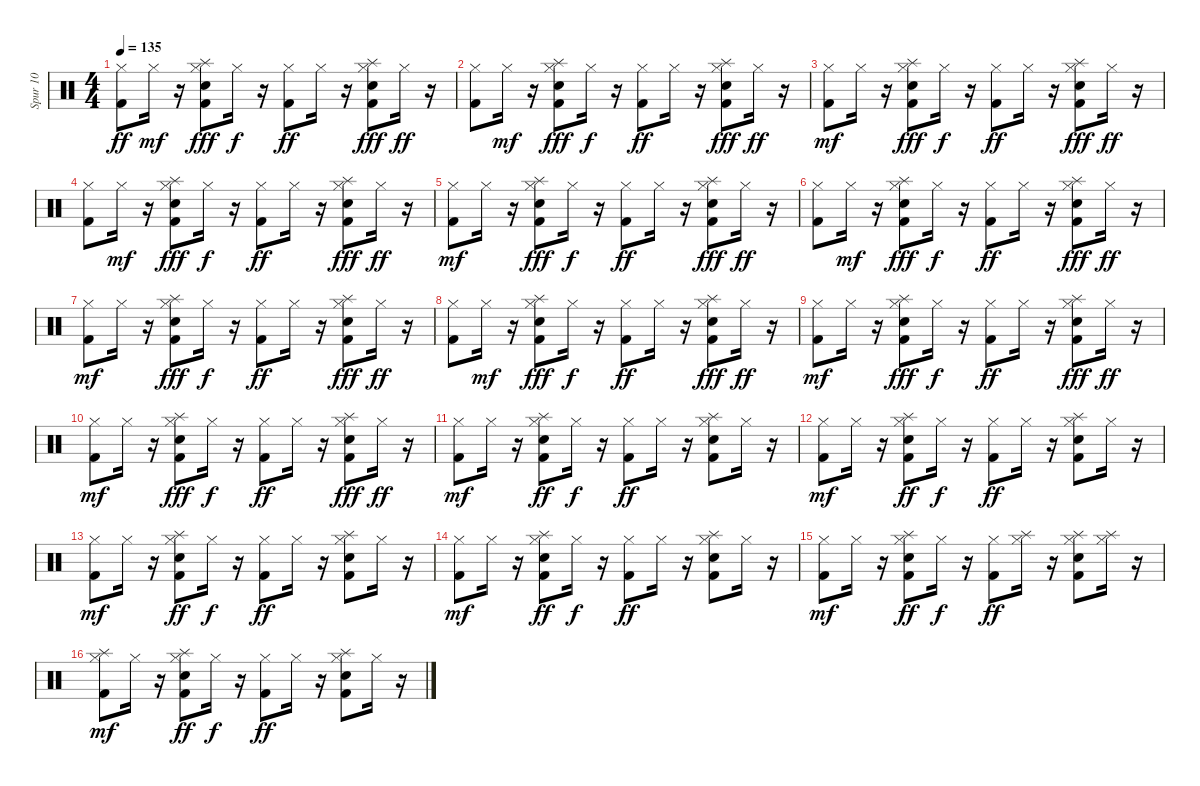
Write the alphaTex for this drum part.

\track ("Spur 10" "Spur 10") {instrument percussion}
\staff {score}
\articulation defaults
\ts (4 4)
\tempo 135
\clef neutral
\ks c
("Hi-Hat (closed)" "Kick (hit) 2").8{dy ff} "Hi-Hat (closed)".16{dy mf} r.16 ("Hi-Hat (closed)" "Kick (hit) 2" "Splash (hit)" "Snare (hit) 2").8{dy fff} "Hi-Hat (closed)".16{dy f} r.16 ("Hi-Hat (closed)" "Kick (hit) 2").8{dy ff} "Hi-Hat (closed)".16 r.16 ("Hi-Hat (closed)" "Kick (hit) 2" "Splash (hit)" "Snare (hit) 2").8{dy fff} "Hi-Hat (closed)".16{dy ff} r.16 |
("Hi-Hat (closed)" "Kick (hit) 2").8 "Hi-Hat (closed)".16{dy mf} r.16 ("Hi-Hat (closed)" "Kick (hit) 2" "Splash (hit)" "Snare (hit) 2").8{dy fff} "Hi-Hat (closed)".16{dy f} r.16 ("Hi-Hat (closed)" "Kick (hit) 2").8{dy ff} "Hi-Hat (closed)".16 r.16 ("Hi-Hat (closed)" "Kick (hit) 2" "Splash (hit)" "Snare (hit) 2").8{dy fff} "Hi-Hat (closed)".16{dy ff} r.16 |
("Kick (hit) 2" "Hi-Hat (closed)").8{dy mf} "Hi-Hat (closed)".16 r.16 ("Kick (hit) 2" "Hi-Hat (closed)" "Splash (hit)" "Snare (hit) 2").8{dy fff} "Hi-Hat (closed)".16{dy f} r.16 ("Kick (hit) 2" "Hi-Hat (closed)").8{dy ff} "Hi-Hat (closed)".16 r.16 ("Kick (hit) 2" "Hi-Hat (closed)" "Splash (hit)" "Snare (hit) 2").8{dy fff} "Hi-Hat (closed)".16{dy ff} r.16 |
("Hi-Hat (closed)" "Kick (hit) 2").8 "Hi-Hat (closed)".16{dy mf} r.16 ("Hi-Hat (closed)" "Kick (hit) 2" "Snare (hit) 2" "Splash (hit)").8{dy fff} "Hi-Hat (closed)".16{dy f} r.16 ("Hi-Hat (closed)" "Kick (hit) 2").8{dy ff} "Hi-Hat (closed)".16 r.16 ("Hi-Hat (closed)" "Kick (hit) 2" "Snare (hit) 2" "Splash (hit)").8{dy fff} "Hi-Hat (closed)".16{dy ff} r.16 |
("Kick (hit) 2" "Hi-Hat (closed)").8{dy mf} "Hi-Hat (closed)".16 r.16 ("Kick (hit) 2" "Hi-Hat (closed)" "Splash (hit)" "Snare (hit) 2").8{dy fff} "Hi-Hat (closed)".16{dy f} r.16 ("Kick (hit) 2" "Hi-Hat (closed)").8{dy ff} "Hi-Hat (closed)".16 r.16 ("Kick (hit) 2" "Hi-Hat (closed)" "Splash (hit)" "Snare (hit) 2").8{dy fff} "Hi-Hat (closed)".16{dy ff} r.16 |
("Hi-Hat (closed)" "Kick (hit) 2").8 "Hi-Hat (closed)".16{dy mf} r.16 ("Hi-Hat (closed)" "Kick (hit) 2" "Snare (hit) 2" "Splash (hit)").8{dy fff} "Hi-Hat (closed)".16{dy f} r.16 ("Hi-Hat (closed)" "Kick (hit) 2").8{dy ff} "Hi-Hat (closed)".16 r.16 ("Hi-Hat (closed)" "Kick (hit) 2" "Snare (hit) 2" "Splash (hit)").8{dy fff} "Hi-Hat (closed)".16{dy ff} r.16 |
("Kick (hit) 2" "Hi-Hat (closed)").8{dy mf} "Hi-Hat (closed)".16 r.16 ("Kick (hit) 2" "Hi-Hat (closed)" "Snare (hit) 2" "Splash (hit)").8{dy fff} "Hi-Hat (closed)".16{dy f} r.16 ("Kick (hit) 2" "Hi-Hat (closed)").8{dy ff} "Hi-Hat (closed)".16 r.16 ("Kick (hit) 2" "Hi-Hat (closed)" "Snare (hit) 2" "Splash (hit)").8{dy fff} "Hi-Hat (closed)".16{dy ff} r.16 |
("Hi-Hat (closed)" "Kick (hit) 2").8 "Hi-Hat (closed)".16{dy mf} r.16 ("Kick (hit) 2" "Hi-Hat (closed)" "Splash (hit)" "Snare (hit) 2").8{dy fff} "Hi-Hat (closed)".16{dy f} r.16 ("Hi-Hat (closed)" "Kick (hit) 2").8{dy ff} "Hi-Hat (closed)".16 r.16 ("Hi-Hat (closed)" "Kick (hit) 2" "Splash (hit)" "Snare (hit) 2").8{dy fff} "Hi-Hat (closed)".16{dy ff} r.16 |
("Kick (hit) 2" "Hi-Hat (closed)").8{dy mf} "Hi-Hat (closed)".16 r.16 ("Kick (hit) 2" "Hi-Hat (closed)" "Splash (hit)" "Snare (hit) 2").8{dy fff} "Hi-Hat (closed)".16{dy f} r.16 ("Kick (hit) 2" "Hi-Hat (closed)").8{dy ff} "Hi-Hat (closed)".16 r.16 ("Kick (hit) 2" "Hi-Hat (closed)" "Splash (hit)" "Snare (hit) 2").8{dy fff} "Hi-Hat (closed)".16{dy ff} r.16 |
("Kick (hit) 2" "Hi-Hat (closed)").8{dy mf} "Hi-Hat (closed)".16 r.16 ("Kick (hit) 2" "Hi-Hat (closed)" "Snare (hit) 2" "Splash (hit)").8{dy fff} "Hi-Hat (closed)".16{dy f} r.16 ("Kick (hit) 2" "Hi-Hat (closed)").8{dy ff} "Hi-Hat (closed)".16 r.16 ("Kick (hit) 2" "Hi-Hat (closed)" "Snare (hit) 2" "Splash (hit)").8{dy fff} "Hi-Hat (closed)".16{dy ff} r.16 |
("Kick (hit) 2" "Hi-Hat (closed)").8{dy mf} "Hi-Hat (closed)".16 r.16 ("Splash (hit)" "Snare (hit) 2" "Kick (hit) 2" "Hi-Hat (closed)").8{dy ff} "Hi-Hat (closed)".16{dy f} r.16 ("Kick (hit) 2" "Hi-Hat (closed)").8{dy ff} "Hi-Hat (closed)".16 r.16 ("Splash (hit)" "Snare (hit) 2" "Kick (hit) 2" "Hi-Hat (closed)").8 "Hi-Hat (closed)".16 r.16 |
("Kick (hit) 2" "Hi-Hat (closed)").8{dy mf} "Hi-Hat (closed)".16 r.16 ("Splash (hit)" "Snare (hit) 2" "Kick (hit) 2" "Hi-Hat (closed)").8{dy ff} "Hi-Hat (closed)".16{dy f} r.16 ("Kick (hit) 2" "Hi-Hat (closed)").8{dy ff} "Hi-Hat (closed)".16 r.16 ("Splash (hit)" "Snare (hit) 2" "Kick (hit) 2" "Hi-Hat (closed)").8 "Hi-Hat (closed)".16 r.16 |
("Kick (hit) 2" "Hi-Hat (closed)").8{dy mf} "Hi-Hat (closed)".16 r.16 ("Splash (hit)" "Snare (hit) 2" "Kick (hit) 2" "Hi-Hat (closed)").8{dy ff} "Hi-Hat (closed)".16{dy f} r.16 ("Kick (hit) 2" "Hi-Hat (closed)").8{dy ff} "Hi-Hat (closed)".16 r.16 ("Splash (hit)" "Snare (hit) 2" "Kick (hit) 2" "Hi-Hat (closed)").8 "Hi-Hat (closed)".16 r.16 |
("Kick (hit) 2" "Hi-Hat (closed)").8{dy mf} "Hi-Hat (closed)".16 r.16 ("Splash (hit)" "Snare (hit) 2" "Kick (hit) 2" "Hi-Hat (closed)").8{dy ff} "Hi-Hat (closed)".16{dy f} r.16 ("Kick (hit) 2" "Hi-Hat (closed)").8{dy ff} "Hi-Hat (closed)".16 r.16 ("Splash (hit)" "Snare (hit) 2" "Kick (hit) 2" "Hi-Hat (closed)").8 "Hi-Hat (closed)".16 r.16 |
("Kick (hit) 2" "Hi-Hat (closed)").8{dy mf} "Hi-Hat (closed)".16 r.16 ("Splash (hit)" "Snare (hit) 2" "Kick (hit) 2" "Hi-Hat (closed)").8{dy ff} "Hi-Hat (closed)".16{dy f} r.16 ("Kick (hit) 2" "Hi-Hat (closed)").8{dy ff} ("Splash (hit)" "Hi-Hat (closed)").16 r.16 ("Splash (hit)" "Snare (hit) 2" "Kick (hit) 2" "Hi-Hat (closed)").8 ("Splash (hit)" "Hi-Hat (closed)").16 r.16 |
("Splash (hit)" "Kick (hit) 2" "Hi-Hat (closed)").8{dy mf} "Hi-Hat (closed)".16 r.16 ("Splash (hit)" "Snare (hit) 2" "Kick (hit) 2" "Hi-Hat (closed)").8{dy ff} "Hi-Hat (closed)".16{dy f} r.16 ("Kick (hit) 2" "Hi-Hat (closed)").8{dy ff} "Hi-Hat (closed)".16 r.16 ("Splash (hit)" "Snare (hit) 2" "Kick (hit) 2" "Hi-Hat (closed)").8 "Hi-Hat (closed)".16 r.16
